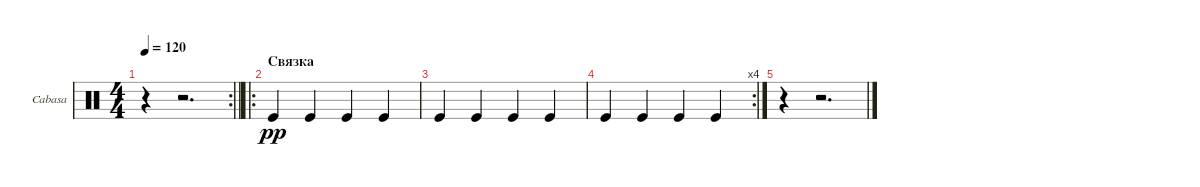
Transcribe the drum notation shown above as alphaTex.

\bracketExtendMode groupsimilarinstruments
\firstSystemTrackNameOrientation horizontal
\otherSystemsTrackNameOrientation horizontal
\track ("Cabasa" "Cabasa") {instrument percussion}
\staff {score}
\articulation defaults
\rc 2
\ts (4 4)
\tempo 120
\clef neutral
\barLineRight lightlight
\ks c
r.4{dy pp} r.2{d} |
\ro
\section ("" "Связка")
"Kick (hit)".4 "Kick (hit)".4 "Kick (hit)".4 "Kick (hit)".4 |
"Kick (hit)".4 "Kick (hit)".4 "Kick (hit)".4 "Kick (hit)".4 |
\rc 4 "Kick (hit)".4 "Kick (hit)".4 "Kick (hit)".4 "Kick (hit)".4
|
r.4 r.2{d}
